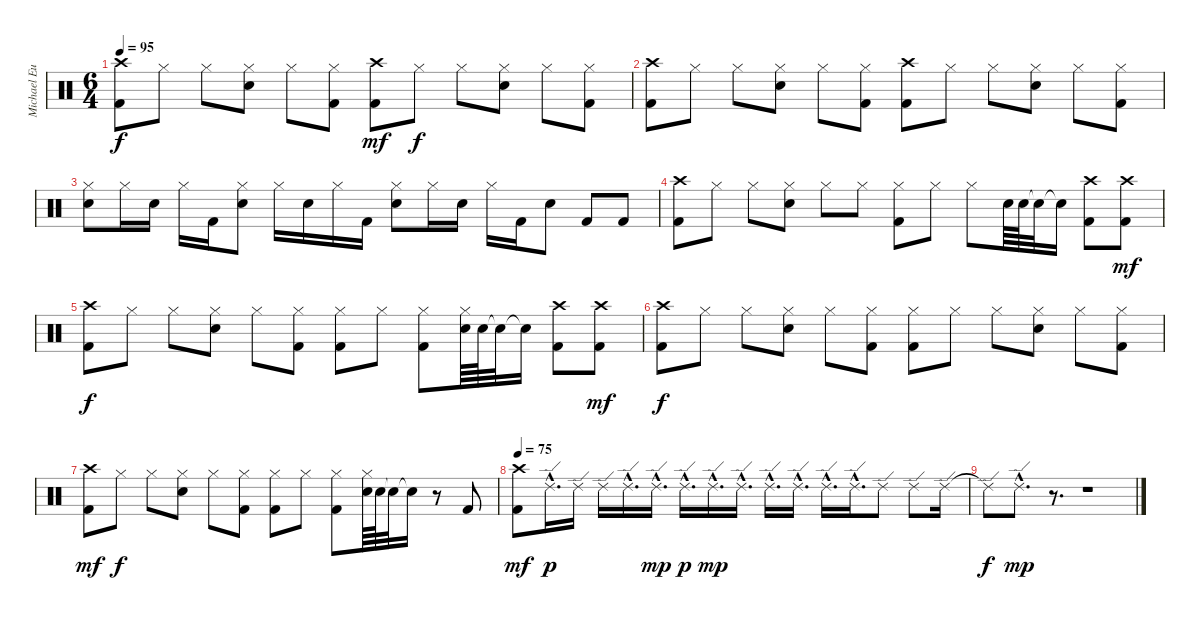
\track ("Michael Eurich" "Michael Eu") {instrument percussion}
\staff {score}
\articulation defaults
\ts (6 4)
\tempo 95
\clef neutral
\ks c
("Kick (hit) 2" "Crash high (hit)").8{dy f} "Hi-Hat (closed)".8 "Hi-Hat (closed)".8 ("Hi-Hat (closed)" "Snare (hit) 2").8 "Hi-Hat (closed)".8 ("Kick (hit) 2" "Hi-Hat (closed)").8 ("Kick (hit) 2" "Crash high (hit)").8{dy mf} "Hi-Hat (closed)".8{dy f} "Hi-Hat (closed)".8 ("Hi-Hat (closed)" "Snare (hit) 2").8 "Hi-Hat (closed)".8 ("Kick (hit) 2" "Hi-Hat (closed)").8 |
("Kick (hit) 2" "Crash high (hit)").8 "Hi-Hat (closed)".8 "Hi-Hat (closed)".8 ("Hi-Hat (closed)" "Snare (hit) 2").8 "Hi-Hat (closed)".8 ("Kick (hit) 2" "Hi-Hat (closed)").8 ("Kick (hit) 2" "Crash high (hit)").8 "Hi-Hat (closed)".8 "Hi-Hat (closed)".8 ("Hi-Hat (closed)" "Snare (hit) 2").8 "Hi-Hat (closed)".8 ("Kick (hit) 2" "Hi-Hat (closed)").8 |
("Hi-Hat (closed)" "Snare (hit) 2").8 "Hi-Hat (closed)".16 "Snare (hit) 2".16 "Hi-Hat (closed)".16 "Kick (hit) 2".16 ("Hi-Hat (closed)" "Snare (hit) 2").8 "Hi-Hat (closed)".16 "Snare (hit) 2".16 "Hi-Hat (closed)".16 "Kick (hit) 2".16 ("Hi-Hat (closed)" "Snare (hit) 2").8 "Hi-Hat (closed)".16 "Snare (hit) 2".16 "Hi-Hat (closed)".16 "Kick (hit) 2".16 "Snare (hit) 2".8 "Kick (hit) 2".8 "Kick (hit) 2".8 |
("Kick (hit) 2" "Crash high (hit)").8 "Hi-Hat (closed)".8 "Hi-Hat (closed)".8 ("Hi-Hat (closed)" "Snare (hit) 2").8 "Hi-Hat (closed)".8 "Hi-Hat (closed)".8 ("Kick (hit) 2" "Hi-Hat (closed)").8 "Hi-Hat (closed)".8 "Hi-Hat (closed)".8 "Snare (hit) 2".64 "Snare (hit) 2".64 "Snare (hit)"{t}.32 "Snare (hit)"{t}.16 ("Kick (hit) 2" "Crash high (hit)").8 ("Kick (hit) 2" "Crash high (hit)").8{dy mf} |
("Kick (hit) 2" "Crash high (hit)").8{dy f} "Hi-Hat (closed)".8 "Hi-Hat (closed)".8 ("Hi-Hat (closed)" "Snare (hit) 2").8 "Hi-Hat (closed)".8 ("Kick (hit) 2" "Hi-Hat (closed)").8 ("Kick (hit) 2" "Hi-Hat (closed)").8 "Hi-Hat (closed)".8 ("Kick (hit) 2" "Hi-Hat (closed)").8 ("Hi-Hat (closed)" "Snare (hit) 2").64 "Snare (hit) 2".64 "Snare (hit)"{t}.32 "Snare (hit)"{t}.16 ("Kick (hit) 2" "Crash high (hit)").8 ("Kick (hit) 2" "Crash high (hit)").8{dy mf} |
("Kick (hit) 2" "Crash high (hit)").8{dy f} "Hi-Hat (closed)".8 "Hi-Hat (closed)".8 ("Hi-Hat (closed)" "Snare (hit) 2").8 "Hi-Hat (closed)".8 ("Kick (hit) 2" "Hi-Hat (closed)").8 ("Kick (hit) 2" "Hi-Hat (closed)").8 "Hi-Hat (closed)".8 "Hi-Hat (closed)".8 ("Hi-Hat (closed)" "Snare (hit) 2").8 "Hi-Hat (closed)".8 ("Kick (hit) 2" "Hi-Hat (closed)").8 |
("Kick (hit) 2" "Crash high (hit)").8{dy mf} "Hi-Hat (closed)".8{dy f} "Hi-Hat (closed)".8 ("Hi-Hat (closed)" "Snare (hit) 2").8 "Hi-Hat (closed)".8 ("Kick (hit) 2" "Hi-Hat (closed)").8 ("Kick (hit) 2" "Hi-Hat (closed)").8 "Hi-Hat (closed)".8 ("Kick (hit) 2" "Hi-Hat (closed)").8 ("Hi-Hat (closed)" "Snare (hit) 2").64 "Snare (hit) 2".64 "Snare (hit)"{t}.32 "Snare (hit)"{t}.16 r.8 "Kick (hit) 2".8 |
\tempo 50
\tempo 75
("Kick (hit) 2" "Crash high (hit)").8{dy mf} "Ride (edge) 2"{hac}.16{d dy p} "Ride (edge) 2".16 "Ride (edge) 2".16 "Ride (edge) 2"{hac}.16{d} "Ride (edge) 2"{hac}.16{d dy mp} "Ride (edge) 2"{hac}.16{d dy p} "Ride (edge) 2"{hac}.16{d dy mp} "Ride (edge) 2"{hac}.16{d} "Ride (edge) 2"{hac}.16{d} "Ride (edge) 2"{hac}.16{d} "Ride (edge) 2"{hac}.16{d} "Ride (edge) 2"{hac}.16{d} "Ride (edge) 2".8 "Ride (edge) 2".8 "Ride (edge) 2".16 |
"Ride (edge) 2"{t}.8{dy f} "Ride (edge) 2"{hac}.8{d dy mp} r.8{d} r.1
